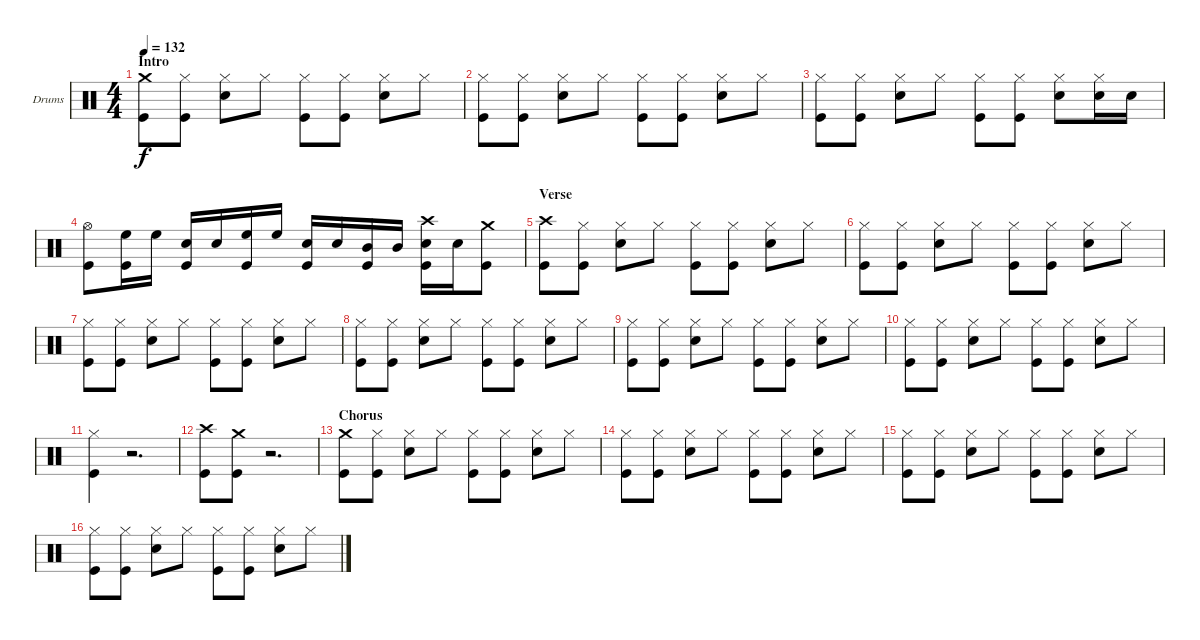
\bracketExtendMode groupsimilarinstruments
\firstSystemTrackNameOrientation horizontal
\otherSystemsTrackNameOrientation horizontal
\track ("Drumkit" "Drums") {instrument percussion}
\staff {score}
\articulation defaults
\ts (4 4)
\section ("" "Intro")
\tempo 132
\clef neutral
\ks c
("Kick (hit)" "Crash medium (hit)").8{dy f} ("Kick (hit)" "Hi-Hat (closed)").8 ("Snare (hit) 2" "Hi-Hat (closed)").8 "Hi-Hat (closed)".8 ("Kick (hit)" "Hi-Hat (closed)").8 ("Kick (hit)" "Hi-Hat (closed)").8 ("Snare (hit) 2" "Hi-Hat (closed)").8 "Hi-Hat (closed)".8 |
("Kick (hit)" "Hi-Hat (closed)").8 ("Kick (hit)" "Hi-Hat (closed)").8 ("Snare (hit) 2" "Hi-Hat (closed)").8 "Hi-Hat (closed)".8 ("Kick (hit)" "Hi-Hat (closed)").8 ("Kick (hit)" "Hi-Hat (closed)").8 ("Snare (hit) 2" "Hi-Hat (closed)").8 "Hi-Hat (closed)".8 |
("Kick (hit)" "Hi-Hat (closed)").8 ("Kick (hit)" "Hi-Hat (closed)").8 ("Snare (hit) 2" "Hi-Hat (closed)").8 "Hi-Hat (closed)".8 ("Kick (hit)" "Hi-Hat (closed)").8 ("Kick (hit)" "Hi-Hat (closed)").8 ("Snare (hit) 2" "Hi-Hat (closed)").8 ("Snare (hit) 2" "Hi-Hat (closed)").16 "Snare (hit) 2".16 |
("Kick (hit)" "Hi-Hat (open)").8 ("Kick (hit)" "High Floor Tom (hit)").16 "High Floor Tom (hit)".16 ("Kick (hit)" "Snare (hit) 2").16 "Snare (hit) 2".16 ("Kick (hit)" "High Floor Tom (hit)").16 "High Floor Tom (hit)".16 ("Kick (hit)" "Snare (hit) 2").16 "Snare (hit) 2".16 ("Kick (hit)" "Mid Tom (hit)").16 "Mid Tom (hit)".16 ("Kick (hit)" "Snare (hit) 2" "Crash high (hit)").16 "Snare (hit) 2".16 ("Kick (hit)" "Crash medium (hit)").8 |
\section ("" "Verse")
("Kick (hit)" "Crash high (hit)").8 ("Kick (hit)" "Hi-Hat (closed)").8 ("Snare (hit) 2" "Hi-Hat (closed)").8 "Hi-Hat (closed)".8 ("Kick (hit)" "Hi-Hat (closed)").8 ("Kick (hit)" "Hi-Hat (closed)").8 ("Snare (hit) 2" "Hi-Hat (closed)").8 "Hi-Hat (closed)".8 |
("Kick (hit)" "Hi-Hat (closed)").8 ("Kick (hit)" "Hi-Hat (closed)").8 ("Snare (hit) 2" "Hi-Hat (closed)").8 "Hi-Hat (closed)".8 ("Kick (hit)" "Hi-Hat (closed)").8 ("Kick (hit)" "Hi-Hat (closed)").8 ("Snare (hit) 2" "Hi-Hat (closed)").8 "Hi-Hat (closed)".8 |
("Kick (hit)" "Hi-Hat (closed)").8 ("Kick (hit)" "Hi-Hat (closed)").8 ("Snare (hit) 2" "Hi-Hat (closed)").8 "Hi-Hat (closed)".8 ("Kick (hit)" "Hi-Hat (closed)").8 ("Kick (hit)" "Hi-Hat (closed)").8 ("Snare (hit) 2" "Hi-Hat (closed)").8 "Hi-Hat (closed)".8 |
("Kick (hit)" "Hi-Hat (closed)").8 ("Kick (hit)" "Hi-Hat (closed)").8 ("Snare (hit) 2" "Hi-Hat (closed)").8 "Hi-Hat (closed)".8 ("Kick (hit)" "Hi-Hat (closed)").8 ("Kick (hit)" "Hi-Hat (closed)").8 ("Snare (hit) 2" "Hi-Hat (closed)").8 "Hi-Hat (closed)".8 |
("Kick (hit)" "Hi-Hat (closed)").8 ("Kick (hit)" "Hi-Hat (closed)").8 ("Snare (hit) 2" "Hi-Hat (closed)").8 "Hi-Hat (closed)".8 ("Kick (hit)" "Hi-Hat (closed)").8 ("Kick (hit)" "Hi-Hat (closed)").8 ("Snare (hit) 2" "Hi-Hat (closed)").8 "Hi-Hat (closed)".8 |
("Kick (hit)" "Hi-Hat (closed)").8 ("Kick (hit)" "Hi-Hat (closed)").8 ("Snare (hit) 2" "Hi-Hat (closed)").8 "Hi-Hat (closed)".8 ("Kick (hit)" "Hi-Hat (closed)").8 ("Kick (hit)" "Hi-Hat (closed)").8 ("Snare (hit) 2" "Hi-Hat (closed)").8 "Hi-Hat (closed)".8 |
("Kick (hit)" "Hi-Hat (closed)").4 r.2{d} |
("Kick (hit)" "Crash high (hit)").8 ("Kick (hit)" "Crash medium (hit)").8 r.2{d} |
\section ("" "Chorus")
("Kick (hit)" "Crash medium (hit)").8 ("Kick (hit)" "Hi-Hat (closed)").8 ("Snare (hit) 2" "Hi-Hat (closed)").8 "Hi-Hat (closed)".8 ("Kick (hit)" "Hi-Hat (closed)").8 ("Kick (hit)" "Hi-Hat (closed)").8 ("Snare (hit) 2" "Hi-Hat (closed)").8 "Hi-Hat (closed)".8 |
("Kick (hit)" "Hi-Hat (closed)").8 ("Kick (hit)" "Hi-Hat (closed)").8 ("Snare (hit) 2" "Hi-Hat (closed)").8 "Hi-Hat (closed)".8 ("Kick (hit)" "Hi-Hat (closed)").8 ("Kick (hit)" "Hi-Hat (closed)").8 ("Snare (hit) 2" "Hi-Hat (closed)").8 "Hi-Hat (closed)".8 |
("Kick (hit)" "Hi-Hat (closed)").8 ("Kick (hit)" "Hi-Hat (closed)").8 ("Snare (hit) 2" "Hi-Hat (closed)").8 "Hi-Hat (closed)".8 ("Kick (hit)" "Hi-Hat (closed)").8 ("Kick (hit)" "Hi-Hat (closed)").8 ("Snare (hit) 2" "Hi-Hat (closed)").8 "Hi-Hat (closed)".8 |
("Kick (hit)" "Hi-Hat (closed)").8 ("Kick (hit)" "Hi-Hat (closed)").8 ("Snare (hit) 2" "Hi-Hat (closed)").8 "Hi-Hat (closed)".8 ("Kick (hit)" "Hi-Hat (closed)").8 ("Kick (hit)" "Hi-Hat (closed)").8 ("Snare (hit) 2" "Hi-Hat (closed)").8 "Hi-Hat (closed)".8
